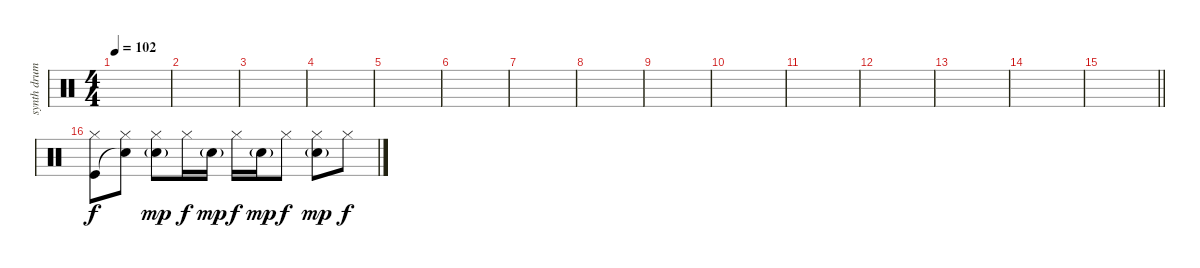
\track ("synth drums" "synth drum") {instrument percussion}
\staff {score}
\articulation defaults
\ts (4 4)
\tempo 102
\clef neutral
\ks c
|
|
|
|
|
|
|
|
|
|
|
|
|
|
\barLineRight lightlight
|
("Hi-Hat (closed)" "Kick (hit)").8 ("Hi-Hat (closed)" "Snare (hit)"{t}).8 ("Hi-Hat (closed)" "Electric Snare (hit)"{g}).8{dy mp} "Hi-Hat (closed)".16{dy f} "Electric Snare (hit)"{g}.16{dy mp} "Hi-Hat (closed)".16{dy f} "Electric Snare (hit)"{g}.16{dy mp} "Hi-Hat (closed)".8{dy f} ("Hi-Hat (closed)" "Electric Snare (hit)"{g}).8{dy mp} "Hi-Hat (closed)".8{dy f}
